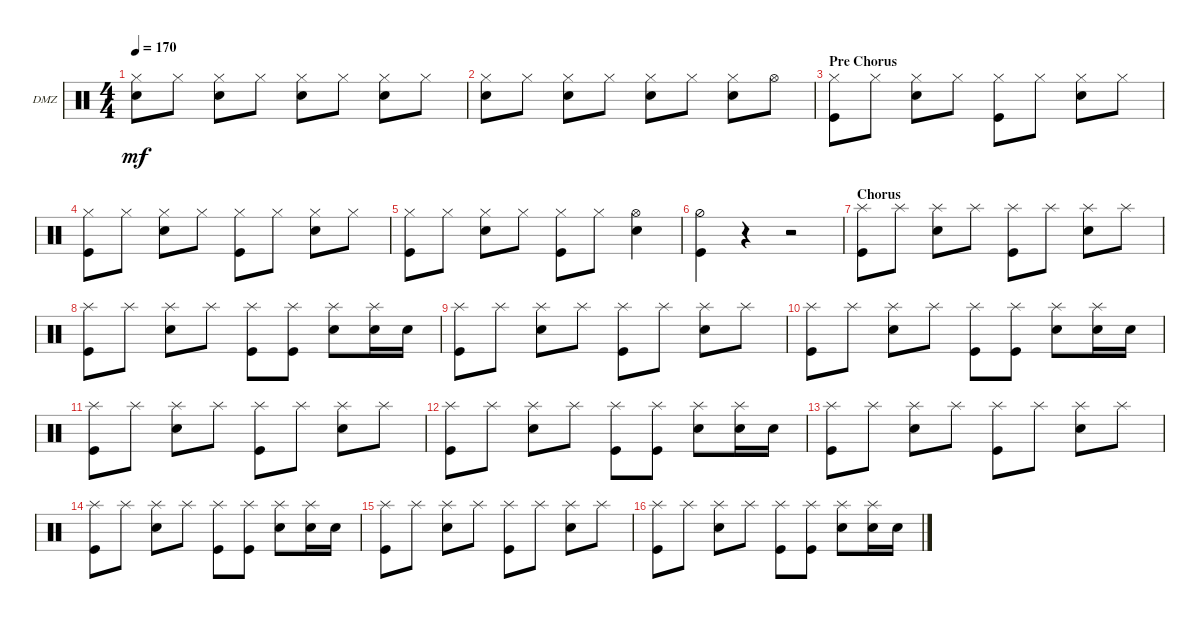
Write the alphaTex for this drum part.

\defaultSystemsLayout 4
\bracketExtendMode groupsimilarinstruments
\firstSystemTrackNameOrientation horizontal
\otherSystemsTrackNameOrientation horizontal
\track ("Drumz" "DMZ") {instrument percussion}
\staff {score}
\articulation defaults
\ts (4 4)
\tempo 170
\clef neutral
\ks c
("Hi-Hat (closed)" "Snare (hit) 2").8{dy mf} "Hi-Hat (closed)".8 ("Hi-Hat (closed)" "Snare (hit) 2").8 "Hi-Hat (closed)".8 ("Hi-Hat (closed)" "Snare (hit) 2").8 "Hi-Hat (closed)".8 ("Hi-Hat (closed)" "Snare (hit) 2").8 "Hi-Hat (closed)".8 |
("Hi-Hat (closed)" "Snare (hit) 2").8 "Hi-Hat (closed)".8 ("Hi-Hat (closed)" "Snare (hit) 2").8 "Hi-Hat (closed)".8 ("Hi-Hat (closed)" "Snare (hit) 2").8 "Hi-Hat (closed)".8 ("Hi-Hat (closed)" "Snare (hit) 2").8 "Hi-Hat (open)".8 |
\section ("" "Pre Chorus")
("Hi-Hat (closed)" "Kick (hit)").8 "Hi-Hat (closed)".8 ("Hi-Hat (closed)" "Snare (hit) 2").8 "Hi-Hat (closed)".8 ("Hi-Hat (closed)" "Kick (hit)").8 "Hi-Hat (closed)".8 ("Hi-Hat (closed)" "Snare (hit) 2").8 "Hi-Hat (closed)".8 |
("Hi-Hat (closed)" "Kick (hit)").8 "Hi-Hat (closed)".8 ("Hi-Hat (closed)" "Snare (hit) 2").8 "Hi-Hat (closed)".8 ("Hi-Hat (closed)" "Kick (hit)").8 "Hi-Hat (closed)".8 ("Hi-Hat (closed)" "Snare (hit) 2").8 "Hi-Hat (closed)".8 |
("Hi-Hat (closed)" "Kick (hit)").8 "Hi-Hat (closed)".8 ("Hi-Hat (closed)" "Snare (hit) 2").8 "Hi-Hat (closed)".8 ("Hi-Hat (closed)" "Kick (hit)").8 "Hi-Hat (closed)".8 ("Hi-Hat (open)" "Snare (hit) 2").4 |
("Kick (hit)" "Hi-Hat (half)").4 r.4 r.2 |
\section ("" "Chorus")
("Splash (hit)" "Kick (hit)").8 "Splash (hit)".8 ("Splash (hit)" "Snare (hit) 2").8 "Splash (hit)".8 ("Splash (hit)" "Kick (hit)").8 "Splash (hit)".8 ("Splash (hit)" "Snare (hit) 2").8 "Splash (hit)".8 |
("Splash (hit)" "Kick (hit)").8 "Splash (hit)".8 ("Splash (hit)" "Snare (hit) 2").8 "Splash (hit)".8 ("Splash (hit)" "Kick (hit)").8 ("Splash (hit)" "Kick (hit)").8 ("Splash (hit)" "Snare (hit) 2").8 ("Snare (hit) 2" "Splash (hit)").16 "Snare (hit) 2".16 |
("Splash (hit)" "Kick (hit)").8 "Splash (hit)".8 ("Splash (hit)" "Snare (hit) 2").8 "Splash (hit)".8 ("Splash (hit)" "Kick (hit)").8 "Splash (hit)".8 ("Splash (hit)" "Snare (hit) 2").8 "Splash (hit)".8 |
("Splash (hit)" "Kick (hit)").8 "Splash (hit)".8 ("Splash (hit)" "Snare (hit) 2").8 "Splash (hit)".8 ("Splash (hit)" "Kick (hit)").8 ("Splash (hit)" "Kick (hit)").8 ("Splash (hit)" "Snare (hit) 2").8 ("Snare (hit) 2" "Splash (hit)").16 "Snare (hit) 2".16 |
("Splash (hit)" "Kick (hit)").8 "Splash (hit)".8 ("Splash (hit)" "Snare (hit) 2").8 "Splash (hit)".8 ("Splash (hit)" "Kick (hit)").8 "Splash (hit)".8 ("Splash (hit)" "Snare (hit) 2").8 "Splash (hit)".8 |
("Splash (hit)" "Kick (hit)").8 "Splash (hit)".8 ("Splash (hit)" "Snare (hit) 2").8 "Splash (hit)".8 ("Splash (hit)" "Kick (hit)").8 ("Splash (hit)" "Kick (hit)").8 ("Splash (hit)" "Snare (hit) 2").8 ("Snare (hit) 2" "Splash (hit)").16 "Snare (hit) 2".16 |
("Splash (hit)" "Kick (hit)").8 "Splash (hit)".8 ("Splash (hit)" "Snare (hit) 2").8 "Splash (hit)".8 ("Splash (hit)" "Kick (hit)").8 "Splash (hit)".8 ("Splash (hit)" "Snare (hit) 2").8 "Splash (hit)".8 |
("Splash (hit)" "Kick (hit)").8 "Splash (hit)".8 ("Splash (hit)" "Snare (hit) 2").8 "Splash (hit)".8 ("Splash (hit)" "Kick (hit)").8 ("Splash (hit)" "Kick (hit)").8 ("Splash (hit)" "Snare (hit) 2").8 ("Snare (hit) 2" "Splash (hit)").16 "Snare (hit) 2".16 |
("Splash (hit)" "Kick (hit)").8 "Splash (hit)".8 ("Splash (hit)" "Snare (hit) 2").8 "Splash (hit)".8 ("Splash (hit)" "Kick (hit)").8 "Splash (hit)".8 ("Splash (hit)" "Snare (hit) 2").8 "Splash (hit)".8 |
("Splash (hit)" "Kick (hit)").8 "Splash (hit)".8 ("Splash (hit)" "Snare (hit) 2").8 "Splash (hit)".8 ("Splash (hit)" "Kick (hit)").8 ("Splash (hit)" "Kick (hit)").8 ("Splash (hit)" "Snare (hit) 2").8 ("Snare (hit) 2" "Splash (hit)").16 "Snare (hit) 2".16
